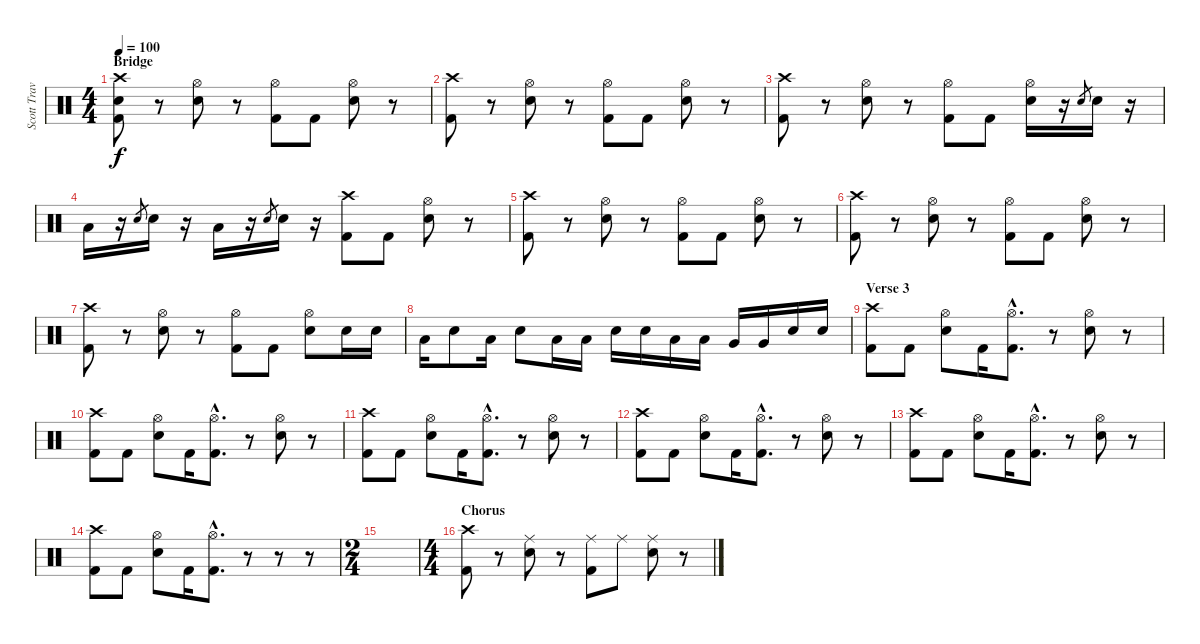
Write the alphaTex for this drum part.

\track ("Scott Travis" "Scott Trav") {instrument percussion}
\staff {score}
\articulation defaults
\ts (4 4)
\section ("" "Bridge")
\tempo 100
\clef neutral
\ks c
("Crash high (hit)" "Kick (hit) 2" "Electric Snare (hit)").8{dy f} r.8 ("Hi-Hat (open)" "Electric Snare (hit)").8 r.8 ("Hi-Hat (open)" "Kick (hit) 2").8 "Kick (hit) 2".8 ("Hi-Hat (open)" "Electric Snare (hit)").8 r.8 |
("Crash high (hit)" "Kick (hit) 2").8 r.8 ("Hi-Hat (open)" "Electric Snare (hit)").8 r.8 ("Hi-Hat (open)" "Kick (hit) 2").8 "Kick (hit) 2".8 ("Hi-Hat (open)" "Electric Snare (hit)").8 r.8 |
("Crash high (hit)" "Kick (hit) 2").8 r.8 ("Hi-Hat (open)" "Electric Snare (hit)").8 r.8 ("Hi-Hat (open)" "Kick (hit) 2").8 "Kick (hit) 2".8 ("Hi-Hat (open)" "Electric Snare (hit)").16 r.16 "Snare (hit) 2".8{gr} "Electric Snare (hit)".16 r.16 |
"Low Floor Tom (hit)".16 r.16 "Snare (hit) 2".8{gr} "Electric Snare (hit)".16 r.16 "Low Floor Tom (hit)".16 r.16 "Snare (hit) 2".8{gr} "Electric Snare (hit)".16 r.16 ("Crash high (hit)" "Kick (hit) 2").8 "Kick (hit) 2".8 ("Hi-Hat (open)" "Electric Snare (hit)").8 r.8 |
("Crash high (hit)" "Kick (hit) 2").8 r.8 ("Hi-Hat (open)" "Electric Snare (hit)").8 r.8 ("Hi-Hat (open)" "Kick (hit) 2").8 "Kick (hit) 2".8 ("Hi-Hat (open)" "Electric Snare (hit)").8 r.8 |
("Crash high (hit)" "Kick (hit) 2").8 r.8 ("Hi-Hat (open)" "Electric Snare (hit)").8 r.8 ("Hi-Hat (open)" "Kick (hit) 2").8 "Kick (hit) 2".8 ("Hi-Hat (open)" "Electric Snare (hit)").8 r.8 |
("Crash high (hit)" "Kick (hit) 2").8 r.8 ("Hi-Hat (open)" "Electric Snare (hit)").8 r.8 ("Hi-Hat (open)" "Kick (hit) 2").8 "Kick (hit) 2".8 ("Hi-Hat (open)" "Electric Snare (hit)").8 "Electric Snare (hit)".16 "Electric Snare (hit)".16 |
"Low Floor Tom (hit)".16 "Electric Snare (hit)".8 "Low Floor Tom (hit)".16 "Electric Snare (hit)".8 "Low Floor Tom (hit)".16 "Low Floor Tom (hit)".16 "Electric Snare (hit)".16 "Electric Snare (hit)".16 "Low Tom (hit)".16 "Low Tom (hit)".16 "Very Low Tom (hit)".16 "Very Low Tom (hit)".16 "Electric Snare (hit)".16 "Electric Snare (hit)".16 |
\section ("" "Verse 3")
("Crash high (hit)" "Kick (hit) 2").8 "Kick (hit) 2".8 ("Hi-Hat (open)" "Electric Snare (hit)").8 "Kick (hit) 2".16 ("Hi-Hat (open)"{hac} "Kick (hit) 2"{hac}).8{d} r.8 ("Hi-Hat (open)" "Electric Snare (hit)").8 r.8 |
("Crash high (hit)" "Kick (hit) 2").8 "Kick (hit) 2".8 ("Hi-Hat (open)" "Electric Snare (hit)").8 "Kick (hit) 2".16 ("Hi-Hat (open)"{hac} "Kick (hit) 2"{hac}).8{d} r.8 ("Hi-Hat (open)" "Electric Snare (hit)").8 r.8 |
("Crash high (hit)" "Kick (hit) 2").8 "Kick (hit) 2".8 ("Hi-Hat (open)" "Electric Snare (hit)").8 "Kick (hit) 2".16 ("Hi-Hat (open)"{hac} "Kick (hit) 2"{hac}).8{d} r.8 ("Hi-Hat (open)" "Electric Snare (hit)").8 r.8 |
("Crash high (hit)" "Kick (hit) 2").8 "Kick (hit) 2".8 ("Hi-Hat (open)" "Electric Snare (hit)").8 "Kick (hit) 2".16 ("Hi-Hat (open)"{hac} "Kick (hit) 2"{hac}).8{d} r.8 ("Hi-Hat (open)" "Electric Snare (hit)").8 r.8 |
("Crash high (hit)" "Kick (hit) 2").8 "Kick (hit) 2".8 ("Hi-Hat (open)" "Electric Snare (hit)").8 "Kick (hit) 2".16 ("Hi-Hat (open)"{hac} "Kick (hit) 2"{hac}).8{d} r.8 ("Hi-Hat (open)" "Electric Snare (hit)").8 r.8 |
("Crash high (hit)" "Kick (hit) 2").8 "Kick (hit) 2".8 ("Hi-Hat (open)" "Electric Snare (hit)").8 "Kick (hit) 2".16 ("Hi-Hat (open)"{hac} "Kick (hit) 2"{hac}).8{d} r.8 r.8 r.8 |
\ts (2 4)
|
\ts (4 4)
\section ("" "Chorus ")
("Crash high (hit)" "Kick (hit) 2").8 r.8 ("Ride (middle)" "Electric Snare (hit)").8 r.8 ("Ride (middle)" "Kick (hit) 2").8 "Ride (middle)".8 ("Ride (middle)" "Electric Snare (hit)").8 r.8
